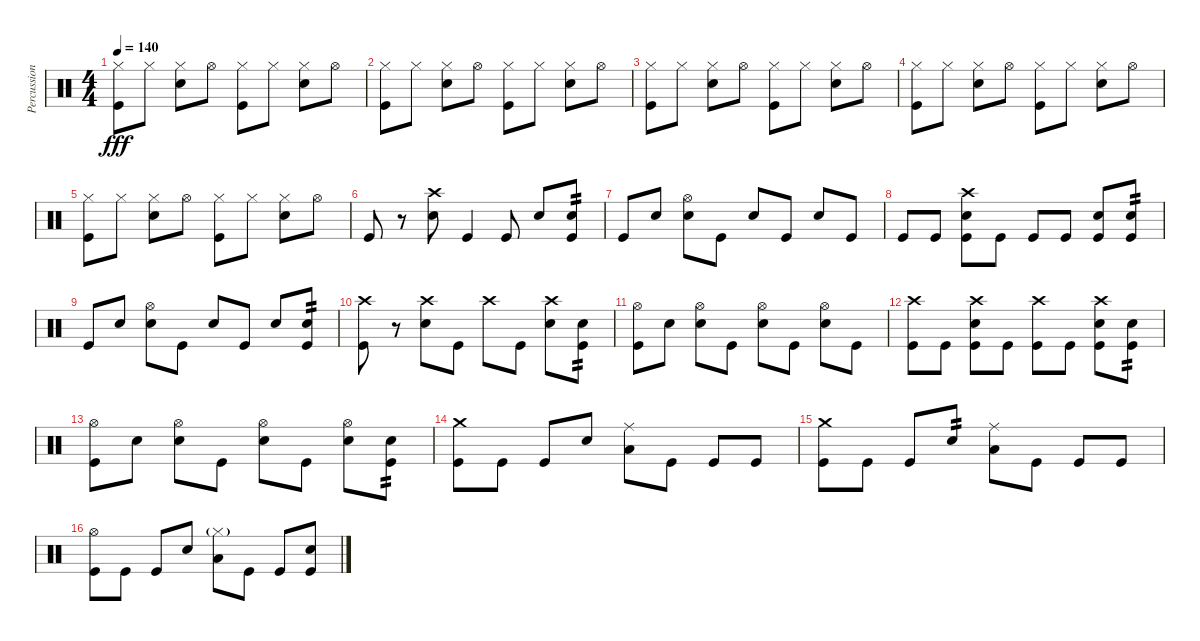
\track ("Percussion" "Percussion") {instrument percussion}
\staff {score}
\articulation defaults
\ts (4 4)
\tempo 140
\clef neutral
\ks c
("Hi-Hat (closed)" "Kick (hit)").8{dy fff} "Hi-Hat (closed)".8 ("Hi-Hat (closed)" "Snare (hit) 2").8 "Hi-Hat (open)".8 ("Hi-Hat (closed)" "Kick (hit)").8 "Hi-Hat (closed)".8 ("Hi-Hat (closed)" "Snare (hit) 2").8 "Hi-Hat (open)".8 |
("Hi-Hat (closed)" "Kick (hit)").8 "Hi-Hat (closed)".8 ("Hi-Hat (closed)" "Snare (hit) 2").8 "Hi-Hat (open)".8 ("Hi-Hat (closed)" "Kick (hit)").8 "Hi-Hat (closed)".8 ("Hi-Hat (closed)" "Snare (hit) 2").8 "Hi-Hat (open)".8 |
("Hi-Hat (closed)" "Kick (hit)").8 "Hi-Hat (closed)".8 ("Hi-Hat (closed)" "Snare (hit) 2").8 "Hi-Hat (open)".8 ("Hi-Hat (closed)" "Kick (hit)").8 "Hi-Hat (closed)".8 ("Hi-Hat (closed)" "Snare (hit) 2").8 "Hi-Hat (open)".8 |
("Hi-Hat (closed)" "Kick (hit)").8 "Hi-Hat (closed)".8 ("Hi-Hat (closed)" "Snare (hit) 2").8 "Hi-Hat (open)".8 ("Hi-Hat (closed)" "Kick (hit)").8 "Hi-Hat (closed)".8 ("Hi-Hat (closed)" "Snare (hit) 2").8 "Hi-Hat (open)".8 |
("Hi-Hat (closed)" "Kick (hit)").8 "Hi-Hat (closed)".8 ("Hi-Hat (closed)" "Snare (hit) 2").8 "Hi-Hat (open)".8 ("Hi-Hat (closed)" "Kick (hit)").8 "Hi-Hat (closed)".8 ("Hi-Hat (closed)" "Snare (hit) 2").8 "Hi-Hat (open)".8 |
"Kick (hit)".8 r.8 ("Crash high (hit)" "Snare (hit) 2").8 "Kick (hit)".4 "Kick (hit)".8 "Snare (hit) 2".8 ("Snare (hit) 2" "Kick (hit)").8{tp 2} |
"Kick (hit)".8 "Snare (hit) 2".8 ("Hi-Hat (open)" "Snare (hit) 2").8 "Kick (hit)".8 "Snare (hit) 2".8 "Kick (hit)".8 "Snare (hit) 2".8 "Kick (hit)".8 |
"Kick (hit)".8 "Kick (hit)".8 ("Crash high (hit)" "Snare (hit) 2" "Kick (hit)").8 "Kick (hit)".8 "Kick (hit)".8 "Kick (hit)".8 ("Snare (hit) 2" "Kick (hit)").8 ("Snare (hit) 2" "Kick (hit)").8{tp 2} |
"Kick (hit)".8 "Snare (hit) 2".8 ("Hi-Hat (open)" "Snare (hit) 2").8 "Kick (hit)".8 "Snare (hit) 2".8 "Kick (hit)".8 "Snare (hit) 2".8 ("Snare (hit) 2" "Kick (hit)").8{tp 2} |
("Crash high (hit)" "Kick (hit)").8 r.8 ("Crash high (hit)" "Snare (hit) 2").8 "Kick (hit)".8 "Crash high (hit)".8 "Kick (hit)".8 ("Crash high (hit)" "Snare (hit) 2").8 ("Snare (hit) 2" "Kick (hit)").8{tp 2} |
("Hi-Hat (open)" "Kick (hit)").8 "Snare (hit) 2".8 ("Hi-Hat (open)" "Snare (hit) 2").8 "Kick (hit)".8 ("Hi-Hat (open)" "Snare (hit) 2").8 "Kick (hit)".8 ("Hi-Hat (open)" "Snare (hit) 2").8 "Kick (hit)".8 |
("Crash high (hit)" "Kick (hit)").8 "Kick (hit)".8 ("Crash high (hit)" "Snare (hit) 2" "Kick (hit)").8 "Kick (hit)".8 ("Crash high (hit)" "Kick (hit)").8 "Kick (hit)".8 ("Crash high (hit)" "Snare (hit) 2" "Kick (hit)").8 ("Snare (hit) 2" "Kick (hit)").8{tp 2} |
("Hi-Hat (open)" "Kick (hit)").8 "Snare (hit) 2".8 ("Hi-Hat (open)" "Snare (hit) 2").8 "Kick (hit)".8 ("Hi-Hat (open)" "Snare (hit) 2").8 "Kick (hit)".8 ("Hi-Hat (open)" "Snare (hit) 2").8 ("Snare (hit) 2" "Kick (hit)").8{tp 2} |
("Crash medium (hit)" "Kick (hit)").8 "Kick (hit)".8 "Kick (hit)".8 "Snare (hit) 2".8 ("Ride (middle)" "Low Floor Tom (hit)").8 "Kick (hit)".8 "Kick (hit)".8 "Kick (hit)".8 |
("Crash medium (hit)" "Kick (hit)").8 "Kick (hit)".8 "Kick (hit)".8 "Snare (hit) 2".8{tp 2} ("Ride (middle)" "Low Floor Tom (hit)").8 "Kick (hit)".8 "Kick (hit)".8 "Kick (hit)".8 |
("Hi-Hat (open)" "Kick (hit)").8 "Kick (hit)".8 "Kick (hit)".8 "Snare (hit) 2".8 ("Hi-Hat (closed)"{g} "Low Floor Tom (hit)").8 "Kick (hit)".8 "Kick (hit)".8 ("Snare (hit) 2" "Kick (hit)").8
